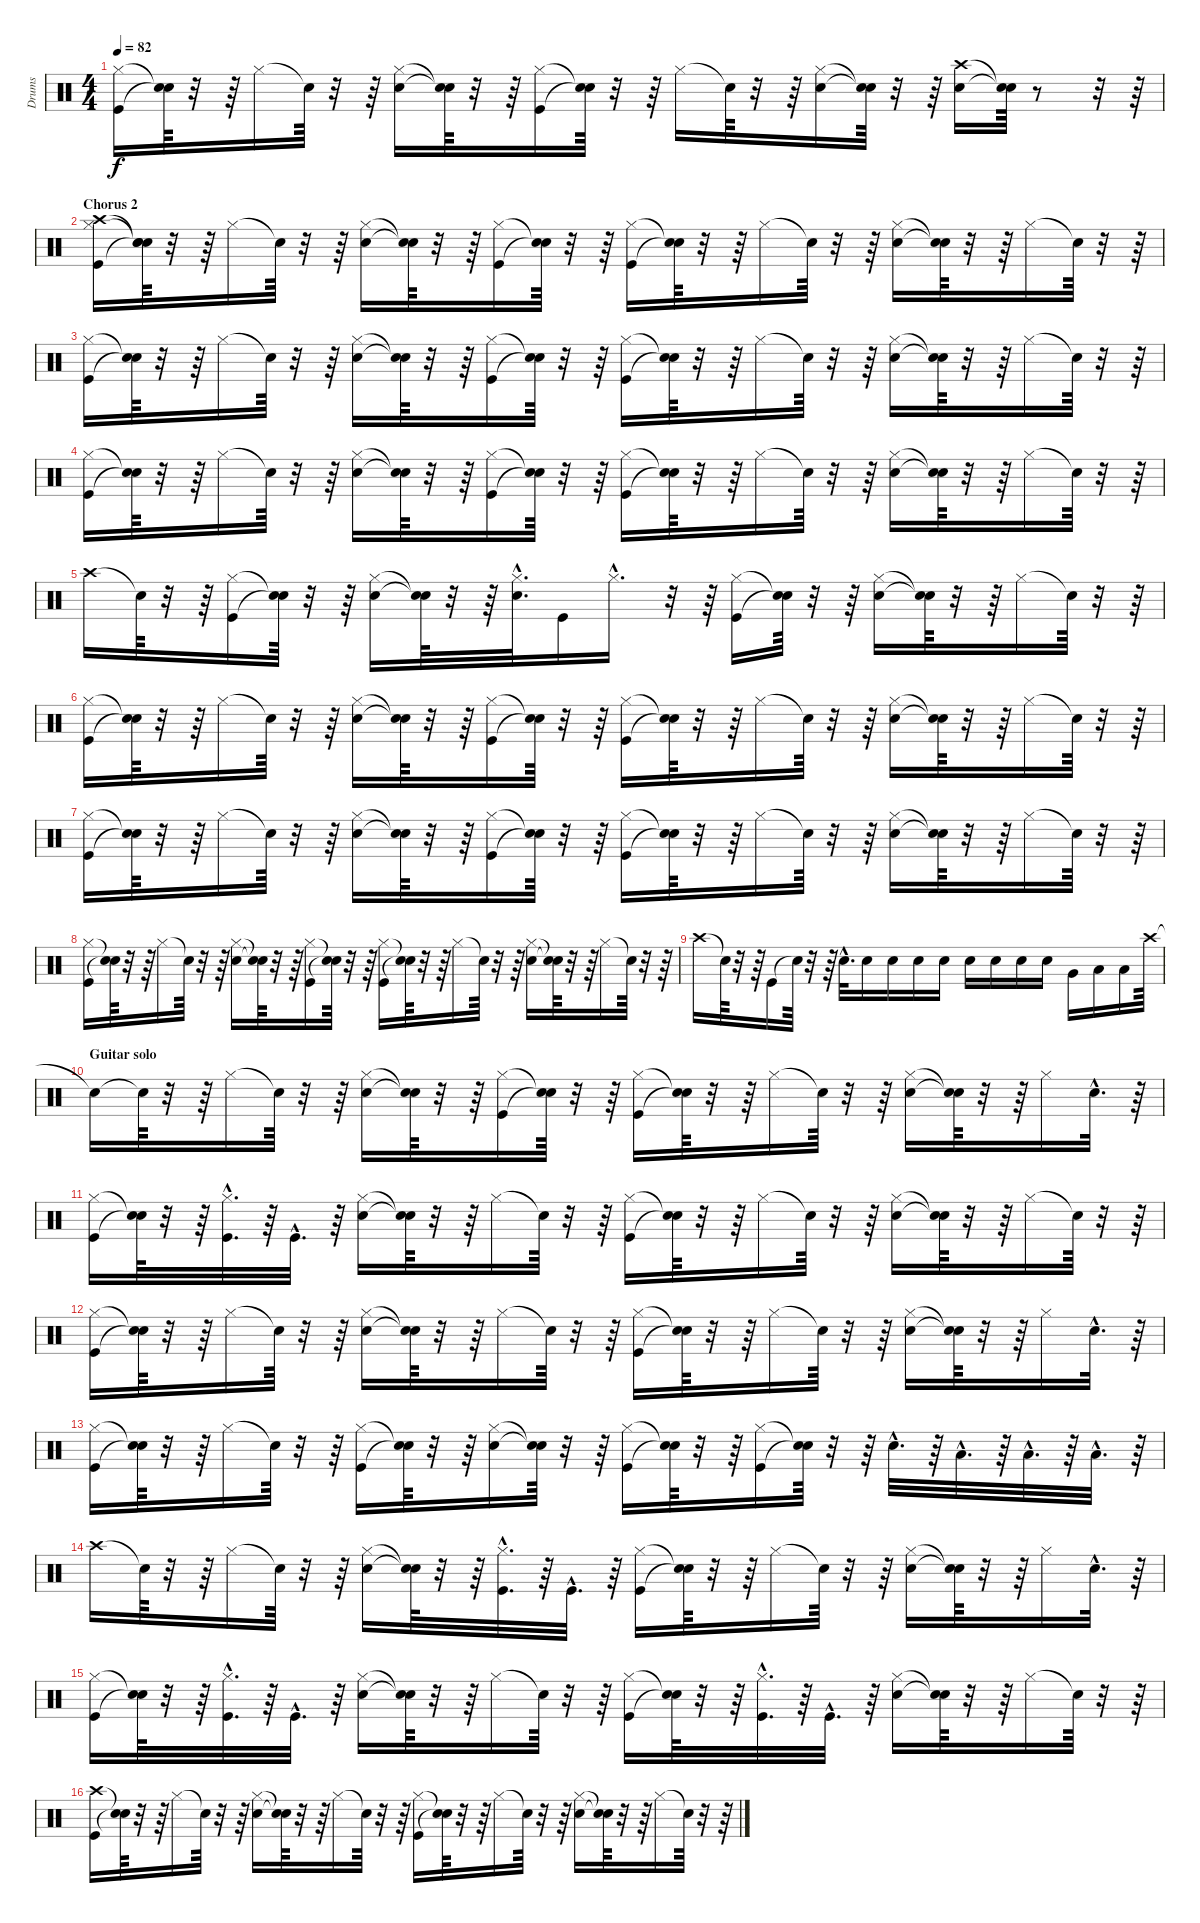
\track ("Drums" "Drums") {instrument percussion}
\staff {score}
\articulation defaults
\ts (4 4)
\tempo 82
\clef neutral
\ks c
("Kick (hit)" "Hi-Hat (closed)").16{dy f} ("Snare (hit)"{t} "Snare (hit)"{t}).64 r.32 r.64 "Hi-Hat (closed)".16 "Snare (hit)"{t}.64 r.32 r.64 ("Snare (hit) 2" "Hi-Hat (closed)").16 ("Snare (hit)"{t} "Snare (hit)"{t}).64 r.32 r.64 ("Hi-Hat (closed)" "Kick (hit)").16 ("Snare (hit)"{t} "Snare (hit)"{t}).64 r.32 r.64 "Hi-Hat (closed)".16 "Snare (hit)"{t}.64 r.32 r.64 ("Snare (hit) 2" "Hi-Hat (closed)").16 ("Snare (hit)"{t} "Snare (hit)"{t}).64 r.32 r.64 ("Crash high (hit)" "Snare (hit) 2").16 ("Snare (hit)"{t} "Snare (hit)"{t}).64 r.8 r.32 r.64 |
\section ("" "Chorus 2")
("Crash high (hit)" "Kick (hit)" "Hi-Hat (closed)").16 ("Snare (hit)"{t} "Snare (hit)"{t} "Snare (hit)"{t}).64 r.32 r.64 "Hi-Hat (closed)".16 "Snare (hit)"{t}.64 r.32 r.64 ("Snare (hit) 2" "Hi-Hat (closed)").16 ("Snare (hit)"{t} "Snare (hit)"{t}).64 r.32 r.64 ("Kick (hit)" "Hi-Hat (closed)").16 ("Snare (hit)"{t} "Snare (hit)"{t}).64 r.32 r.64 ("Kick (hit)" "Hi-Hat (closed)").16 ("Snare (hit)"{t} "Snare (hit)"{t}).64 r.32 r.64 "Hi-Hat (closed)".16 "Snare (hit)"{t}.64 r.32 r.64 ("Snare (hit) 2" "Hi-Hat (closed)").16 ("Snare (hit)"{t} "Snare (hit)"{t}).64 r.32 r.64 "Hi-Hat (closed)".16 "Snare (hit)"{t}.64 r.32 r.64 |
("Kick (hit)" "Hi-Hat (closed)").16 ("Snare (hit)"{t} "Snare (hit)"{t}).64 r.32 r.64 "Hi-Hat (closed)".16 "Snare (hit)"{t}.64 r.32 r.64 ("Snare (hit) 2" "Hi-Hat (closed)").16 ("Snare (hit)"{t} "Snare (hit)"{t}).64 r.32 r.64 ("Kick (hit)" "Hi-Hat (closed)").16 ("Snare (hit)"{t} "Snare (hit)"{t}).64 r.32 r.64 ("Kick (hit)" "Hi-Hat (closed)").16 ("Snare (hit)"{t} "Snare (hit)"{t}).64 r.32 r.64 "Hi-Hat (closed)".16 "Snare (hit)"{t}.64 r.32 r.64 ("Snare (hit) 2" "Hi-Hat (closed)").16 ("Snare (hit)"{t} "Snare (hit)"{t}).64 r.32 r.64 "Hi-Hat (closed)".16 "Snare (hit)"{t}.64 r.32 r.64 |
("Kick (hit)" "Hi-Hat (closed)").16 ("Snare (hit)"{t} "Snare (hit)"{t}).64 r.32 r.64 "Hi-Hat (closed)".16 "Snare (hit)"{t}.64 r.32 r.64 ("Snare (hit) 2" "Hi-Hat (closed)").16 ("Snare (hit)"{t} "Snare (hit)"{t}).64 r.32 r.64 ("Kick (hit)" "Hi-Hat (closed)").16 ("Snare (hit)"{t} "Snare (hit)"{t}).64 r.32 r.64 ("Kick (hit)" "Hi-Hat (closed)").16 ("Snare (hit)"{t} "Snare (hit)"{t}).64 r.32 r.64 "Hi-Hat (closed)".16 "Snare (hit)"{t}.64 r.32 r.64 ("Snare (hit) 2" "Hi-Hat (closed)").16 ("Snare (hit)"{t} "Snare (hit)"{t}).64 r.32 r.64 "Hi-Hat (closed)".16 "Snare (hit)"{t}.64 r.32 r.64 |
"Crash high (hit)".16 "Snare (hit)"{t}.64 r.32 r.64 ("Hi-Hat (closed)" "Kick (hit)").16 ("Snare (hit)"{t} "Snare (hit)"{t}).64 r.32 r.64 ("Hi-Hat (closed)" "Snare (hit) 2").16 ("Snare (hit)"{t} "Snare (hit)"{t}).64 r.32 r.64 ("Hi-Hat (closed)"{hac} "Snare (hit) 2"{hac}).32{d} "Kick (hit)".16 "Hi-Hat (closed)"{hac}.16{d} r.32 r.64 ("Hi-Hat (closed)" "Kick (hit)").16 ("Snare (hit)"{t} "Snare (hit)"{t}).64 r.32 r.64 ("Hi-Hat (closed)" "Snare (hit) 2").16 ("Snare (hit)"{t} "Snare (hit)"{t}).64 r.32 r.64 "Hi-Hat (closed)".16 "Snare (hit)"{t}.64 r.32 r.64 |
("Hi-Hat (closed)" "Kick (hit)").16 ("Snare (hit)"{t} "Snare (hit)"{t}).64 r.32 r.64 "Hi-Hat (closed)".16 "Snare (hit)"{t}.64 r.32 r.64 ("Snare (hit) 2" "Hi-Hat (closed)").16 ("Snare (hit)"{t} "Snare (hit)"{t}).64 r.32 r.64 ("Kick (hit)" "Hi-Hat (closed)").16 ("Snare (hit)"{t} "Snare (hit)"{t}).64 r.32 r.64 ("Kick (hit)" "Hi-Hat (closed)").16 ("Snare (hit)"{t} "Snare (hit)"{t}).64 r.32 r.64 "Hi-Hat (closed)".16 "Snare (hit)"{t}.64 r.32 r.64 ("Hi-Hat (closed)" "Snare (hit) 2").16 ("Snare (hit)"{t} "Snare (hit)"{t}).64 r.32 r.64 "Hi-Hat (closed)".16 "Snare (hit)"{t}.64 r.32 r.64 |
("Hi-Hat (closed)" "Kick (hit)").16 ("Snare (hit)"{t} "Snare (hit)"{t}).64 r.32 r.64 "Hi-Hat (closed)".16 "Snare (hit)"{t}.64 r.32 r.64 ("Snare (hit) 2" "Hi-Hat (closed)").16 ("Snare (hit)"{t} "Snare (hit)"{t}).64 r.32 r.64 ("Kick (hit)" "Hi-Hat (closed)").16 ("Snare (hit)"{t} "Snare (hit)"{t}).64 r.32 r.64 ("Kick (hit)" "Hi-Hat (closed)").16 ("Snare (hit)"{t} "Snare (hit)"{t}).64 r.32 r.64 "Hi-Hat (closed)".16 "Snare (hit)"{t}.64 r.32 r.64 ("Hi-Hat (closed)" "Snare (hit) 2").16 ("Snare (hit)"{t} "Snare (hit)"{t}).64 r.32 r.64 "Hi-Hat (closed)".16 "Snare (hit)"{t}.64 r.32 r.64 |
("Hi-Hat (closed)" "Kick (hit)").16 ("Snare (hit)"{t} "Snare (hit)"{t}).64 r.32 r.64 "Hi-Hat (closed)".16 "Snare (hit)"{t}.64 r.32 r.64 ("Snare (hit) 2" "Hi-Hat (closed)").16 ("Snare (hit)"{t} "Snare (hit)"{t}).64 r.32 r.64 ("Kick (hit)" "Hi-Hat (closed)").16 ("Snare (hit)"{t} "Snare (hit)"{t}).64 r.32 r.64 ("Kick (hit)" "Hi-Hat (closed)").16 ("Snare (hit)"{t} "Snare (hit)"{t}).64 r.32 r.64 "Hi-Hat (closed)".16 "Snare (hit)"{t}.64 r.32 r.64 ("Hi-Hat (closed)" "Snare (hit) 2").16 ("Snare (hit)"{t} "Snare (hit)"{t}).64 r.32 r.64 "Hi-Hat (closed)".16 "Snare (hit)"{t}.64 r.32 r.64 |
"Crash high (hit)".16 "Snare (hit)"{t}.64 r.32 r.64 "Kick (hit)".16 "Snare (hit)"{t}.64 r.32 r.64 "Snare (hit) 2"{hac}.32{d} "Snare (hit) 2".16 "Snare (hit) 2".16 "Snare (hit) 2".16 "Snare (hit) 2".16 "Snare (hit) 2".16 "Snare (hit) 2".16 "Snare (hit) 2".16 "Snare (hit) 2".16 "Very Low Tom (hit)".16 "Low Floor Tom (hit)".16 "Low Floor Tom (hit)".16 "Crash high (hit)".64 |
\section ("" "Guitar solo")
"Snare (hit)"{t}.16 "Snare (hit)"{t}.64 r.32 r.64 "Hi-Hat (closed)".16 "Snare (hit)"{t}.64 r.32 r.64 ("Snare (hit) 2" "Hi-Hat (closed)").16 ("Snare (hit)"{t} "Snare (hit)"{t}).64 r.32 r.64 ("Kick (hit)" "Hi-Hat (closed)").16 ("Snare (hit)"{t} "Snare (hit)"{t}).64 r.32 r.64 ("Kick (hit)" "Hi-Hat (closed)").16 ("Snare (hit)"{t} "Snare (hit)"{t}).64 r.32 r.64 "Hi-Hat (closed)".16 "Snare (hit)"{t}.64 r.32 r.64 ("Snare (hit) 2" "Hi-Hat (closed)").16 ("Snare (hit)"{t} "Snare (hit)"{t}).64 r.32 r.64 "Hi-Hat (closed)".16 "Snare (hit) 2"{hac}.32{d} r.64 |
("Kick (hit)" "Hi-Hat (closed)").16 ("Snare (hit)"{t} "Snare (hit)"{t}).64 r.32 r.64 ("Kick (hit)"{hac} "Hi-Hat (closed)"{hac}).32{d} r.64 "Kick (hit)"{hac}.32{d} r.64 ("Snare (hit) 2" "Hi-Hat (closed)").16 ("Snare (hit)"{t} "Snare (hit)"{t}).64 r.32 r.64 "Hi-Hat (closed)".16 "Snare (hit)"{t}.64 r.32 r.64 ("Kick (hit)" "Hi-Hat (closed)").16 ("Snare (hit)"{t} "Snare (hit)"{t}).64 r.32 r.64 "Hi-Hat (closed)".16 "Snare (hit)"{t}.64 r.32 r.64 ("Snare (hit) 2" "Hi-Hat (closed)").16 ("Snare (hit)"{t} "Snare (hit)"{t}).64 r.32 r.64 "Hi-Hat (closed)".16 "Snare (hit)"{t}.64 r.32 r.64 |
("Kick (hit)" "Hi-Hat (closed)").16 ("Snare (hit)"{t} "Snare (hit)"{t}).64 r.32 r.64 "Hi-Hat (closed)".16 "Snare (hit)"{t}.64 r.32 r.64 ("Snare (hit) 2" "Hi-Hat (closed)").16 ("Snare (hit)"{t} "Snare (hit)"{t}).64 r.32 r.64 "Hi-Hat (closed)".16 "Snare (hit)"{t}.64 r.32 r.64 ("Kick (hit)" "Hi-Hat (closed)").16 ("Snare (hit)"{t} "Snare (hit)"{t}).64 r.32 r.64 "Hi-Hat (closed)".16 "Snare (hit)"{t}.64 r.32 r.64 ("Snare (hit) 2" "Hi-Hat (closed)").16 ("Snare (hit)"{t} "Snare (hit)"{t}).64 r.32 r.64 "Hi-Hat (closed)".16 "Snare (hit) 2"{hac}.32{d} r.64 |
("Kick (hit)" "Hi-Hat (closed)").16 ("Snare (hit)"{t} "Snare (hit)"{t}).64 r.32 r.64 "Hi-Hat (closed)".16 "Snare (hit)"{t}.64 r.32 r.64 ("Kick (hit)" "Hi-Hat (closed)").16 ("Snare (hit)"{t} "Snare (hit)"{t}).64 r.32 r.64 ("Snare (hit) 2" "Hi-Hat (closed)").16 ("Snare (hit)"{t} "Snare (hit)"{t}).64 r.32 r.64 ("Kick (hit)" "Hi-Hat (closed)").16 ("Snare (hit)"{t} "Snare (hit)"{t}).64 r.32 r.64 ("Kick (hit)" "Hi-Hat (closed)").16 ("Snare (hit)"{t} "Snare (hit)"{t}).64 r.32 r.64 "Snare (hit) 2"{hac}.32{d} r.64 "Low Tom (hit)"{hac}.32{d} r.64 "Low Floor Tom (hit)"{hac}.32{d} r.64 "Low Floor Tom (hit)"{hac}.32{d} r.64 |
"Crash high (hit)".16 "Snare (hit)"{t}.64 r.32 r.64 "Hi-Hat (closed)".16 "Snare (hit)"{t}.64 r.32 r.64 ("Snare (hit) 2" "Hi-Hat (closed)").16 ("Snare (hit)"{t} "Snare (hit)"{t}).64 r.32 r.64 ("Kick (hit)"{hac} "Hi-Hat (closed)"{hac}).32{d} r.64 "Kick (hit)"{hac}.32{d} r.64 ("Kick (hit)" "Hi-Hat (closed)").16 ("Snare (hit)"{t} "Snare (hit)"{t}).64 r.32 r.64 "Hi-Hat (closed)".16 "Snare (hit)"{t}.64 r.32 r.64 ("Hi-Hat (closed)" "Snare (hit) 2").16 ("Snare (hit)"{t} "Snare (hit)"{t}).64 r.32 r.64 "Hi-Hat (closed)".16 "Snare (hit) 2"{hac}.32{d} r.64 |
("Kick (hit)" "Hi-Hat (closed)").16 ("Snare (hit)"{t} "Snare (hit)"{t}).64 r.32 r.64 ("Hi-Hat (closed)"{hac} "Kick (hit)"{hac}).32{d} r.64 "Kick (hit)"{hac}.32{d} r.64 ("Snare (hit) 2" "Hi-Hat (closed)").16 ("Snare (hit)"{t} "Snare (hit)"{t}).64 r.32 r.64 "Hi-Hat (closed)".16 "Snare (hit)"{t}.64 r.32 r.64 ("Hi-Hat (closed)" "Kick (hit)").16 ("Snare (hit)"{t} "Snare (hit)"{t}).64 r.32 r.64 ("Hi-Hat (closed)"{hac} "Kick (hit)"{hac}).32{d} r.64 "Kick (hit)"{hac}.32{d} r.64 ("Hi-Hat (closed)" "Snare (hit) 2").16 ("Snare (hit)"{t} "Snare (hit)"{t}).64 r.32 r.64 "Hi-Hat (closed)".16 "Snare (hit)"{t}.64 r.32 r.64 |
("Crash high (hit)" "Kick (hit)").16 ("Snare (hit)"{t} "Snare (hit)"{t}).64 r.32 r.64 "Hi-Hat (closed)".16 "Snare (hit)"{t}.64 r.32 r.64 ("Hi-Hat (closed)" "Snare (hit) 2").16 ("Snare (hit)"{t} "Snare (hit)"{t}).64 r.32 r.64 "Hi-Hat (closed)".16 "Snare (hit)"{t}.64 r.32 r.64 ("Hi-Hat (closed)" "Kick (hit)").16 ("Snare (hit)"{t} "Snare (hit)"{t}).64 r.32 r.64 "Hi-Hat (closed)".16 "Snare (hit)"{t}.64 r.32 r.64 ("Hi-Hat (closed)" "Snare (hit) 2").16 ("Snare (hit)"{t} "Snare (hit)"{t}).64 r.32 r.64 "Hi-Hat (closed)".16 "Snare (hit)"{t}.64 r.32 r.64
